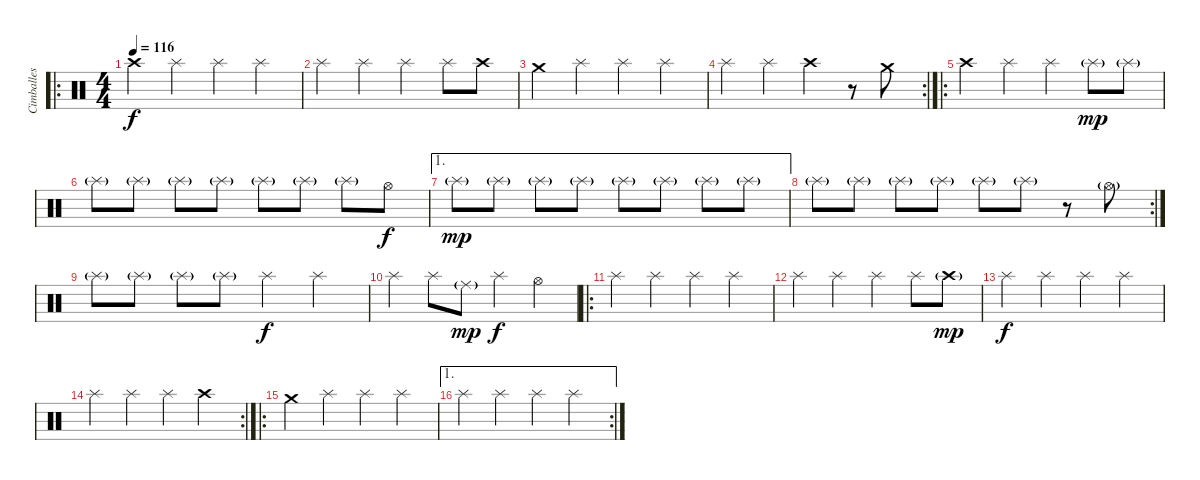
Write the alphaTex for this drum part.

\track ("Cimballes" "Cimballes") {instrument percussion}
\staff {score}
\articulation defaults
\ro
\ts (4 4)
\tempo 116
\clef neutral
\ks c "Crash high (hit)".4{dy f} "Splash (hit)".4 "Splash (hit)".4 "Splash (hit)".4
|
"Splash (hit)".4 "Splash (hit)".4 "Splash (hit)".4 "Splash (hit)".8 "Crash high (hit)".8 |
"Crash medium (hit)".4 "Splash (hit)".4 "Splash (hit)".4 "Splash (hit)".4 |
\rc 2 "Splash (hit)".4 "Splash (hit)".4 "Crash high (hit)".4
r.8 "Crash medium (hit)".8 |
\ro "Crash high (hit)".4 "Splash (hit)".4 "Splash (hit)".4 "Splash (hit)"{g}.8{dy mp} "Splash (hit)"{g}.8
|
"Splash (hit)"{g}.8 "Splash (hit)"{g}.8 "Splash (hit)"{g}.8 "Splash (hit)"{g}.8 "Splash (hit)"{g}.8 "Splash (hit)"{g}.8 "Splash (hit)"{g}.8 "Hi-Hat (open)".8{dy f} |
\ae 1 "Splash (hit)"{g}.8{dy mp} "Splash (hit)"{g}.8 "Splash (hit)"{g}.8 "Splash (hit)"{g}.8 "Splash (hit)"{g}.8 "Splash (hit)"{g}.8 "Splash (hit)"{g}.8 "Splash (hit)"{g}.8
|
\rc 2 "Splash (hit)"{g}.8 "Splash (hit)"{g}.8 "Splash (hit)"{g}.8 "Splash (hit)"{g}.8 "Splash (hit)"{g}.8 "Splash (hit)"{g}.8
r.8 "Hi-Hat (open)"{g}.8 |
"Splash (hit)"{g}.8 "Splash (hit)"{g}.8 "Splash (hit)"{g}.8 "Splash (hit)"{g}.8 "Splash (hit)".4{dy f} "Splash (hit)".4 |
"Splash (hit)".4 "Splash (hit)".8 "Ride (middle)"{g}.8{dy mp} "Splash (hit)".4{dy f} "Hi-Hat (open)".4 |
\ro "Splash (hit)".4 "Splash (hit)".4 "Splash (hit)".4 "Splash (hit)".4
|
"Splash (hit)".4 "Splash (hit)".4 "Splash (hit)".4 "Splash (hit)".8 "Crash high (hit)"{g}.8{dy mp} |
"Splash (hit)".4{dy f} "Splash (hit)".4 "Splash (hit)".4 "Splash (hit)".4 |
\rc 2 "Splash (hit)".4 "Splash (hit)".4 "Splash (hit)".4 "Crash high (hit)".4
|
\ro "Crash medium (hit)".4 "Splash (hit)".4 "Splash (hit)".4 "Splash (hit)".4
|
\ae 1
\rc 2 "Splash (hit)".4 "Splash (hit)".4 "Splash (hit)".4 "Splash (hit)".4
